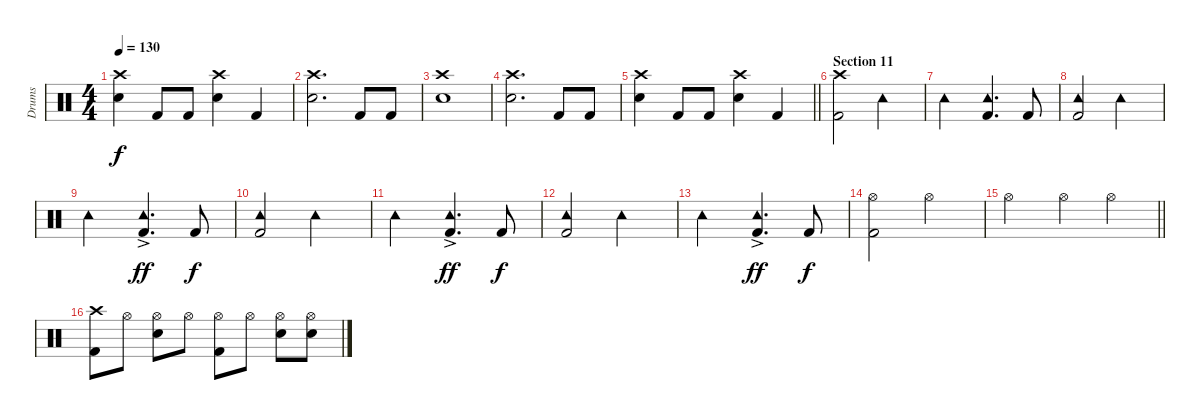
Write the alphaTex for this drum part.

\track ("Drums" "Drums") {instrument percussion}
\staff {score}
\articulation defaults
\ts (4 4)
\tempo 130
\clef neutral
\ks c
("Crash high (hit)" "Electric Snare (hit)").4{dy f} "Kick (hit) 2".8 "Kick (hit) 2".8 ("Crash high (hit)" "Electric Snare (hit)").4 "Kick (hit) 2".4 |
("Crash high (hit)" "Electric Snare (hit)").2{d} "Kick (hit) 2".8 "Kick (hit) 2".8 |
("Crash high (hit)" "Electric Snare (hit)").1 |
("Crash high (hit)" "Electric Snare (hit)").2{d} "Kick (hit) 2".8 "Kick (hit) 2".8 |
\barLineRight lightlight
("Crash high (hit)" "Electric Snare (hit)").4 "Kick (hit) 2".8 "Kick (hit) 2".8 ("Crash high (hit)" "Electric Snare (hit)").4 "Kick (hit) 2".4 |
\section ("" "Section 11")
("Crash high (hit)" "Kick (hit) 2").2 "Tambourine (hit)".2 |
"Tambourine (hit)".2 ("Tambourine (hit)" "Kick (hit) 2").4{d} "Kick (hit) 2".8 |
("Tambourine (hit)" "Kick (hit) 2").2 "Tambourine (hit)".2 |
"Tambourine (hit)".2 ("Tambourine (hit)" "Kick (hit) 2"{ac}).4{d dy ff} "Kick (hit) 2".8{dy f} |
("Tambourine (hit)" "Kick (hit) 2").2 "Tambourine (hit)".2 |
"Tambourine (hit)".2 ("Tambourine (hit)" "Kick (hit) 2"{ac}).4{d dy ff} "Kick (hit) 2".8{dy f} |
("Tambourine (hit)" "Kick (hit) 2").2 "Tambourine (hit)".2 |
"Tambourine (hit)".2 ("Tambourine (hit)" "Kick (hit) 2"{ac}).4{d dy ff} "Kick (hit) 2".8{dy f} |
("Hi-Hat (open)" "Kick (hit) 2").2 "Hi-Hat (open)".2 |
\barLineRight lightlight "Hi-Hat (open)".2 "Hi-Hat (open)".4 "Hi-Hat (open)".4
|
("Crash high (hit)" "Kick (hit) 2").8 "Hi-Hat (open)".8 ("Hi-Hat (open)" "Electric Snare (hit)").8 "Hi-Hat (open)".8 ("Hi-Hat (open)" "Kick (hit) 2").8 "Hi-Hat (open)".8 ("Hi-Hat (open)" "Electric Snare (hit)").8 ("Hi-Hat (open)" "Electric Snare (hit)").8
